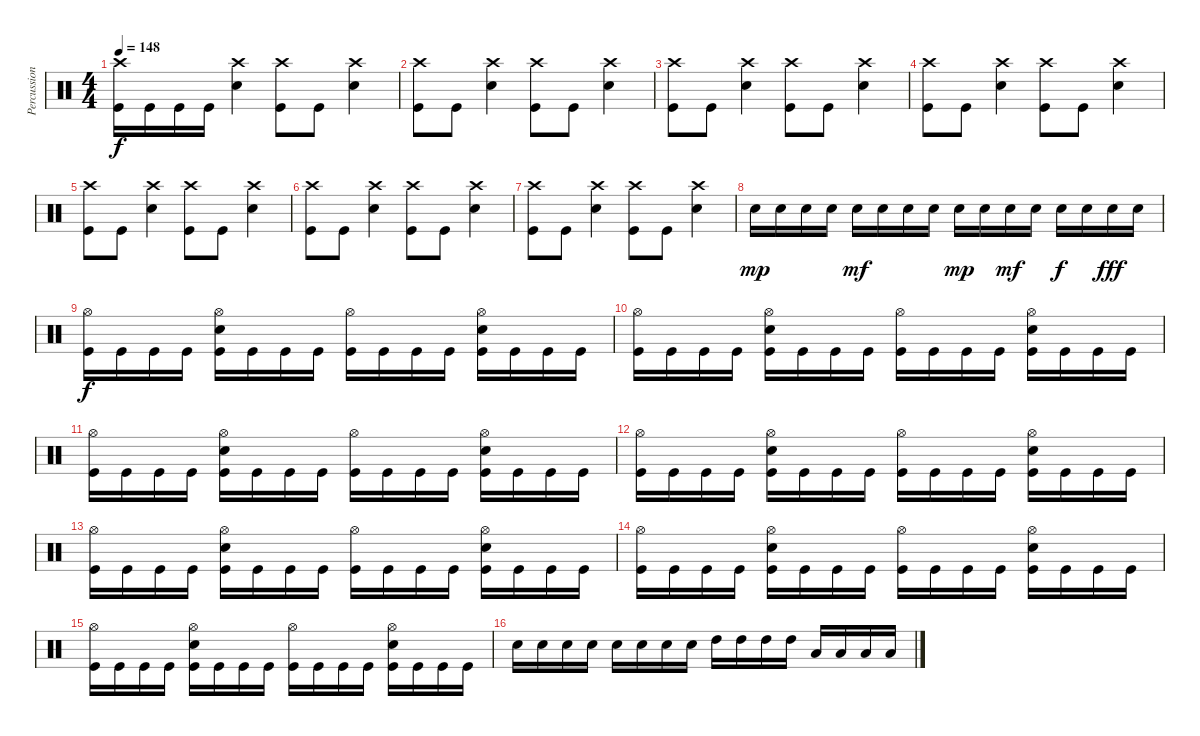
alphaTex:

\track ("Percussion" "Percussion") {instrument percussion}
\staff {score}
\articulation defaults
\ts (4 4)
\tempo 148
\clef neutral
\ks c
("Crash high (hit)" "Kick (hit)").16{dy f} "Kick (hit)".16 "Kick (hit)".16 "Kick (hit)".16 ("Crash high (hit)" "Electric Snare (hit)").4 ("Crash high (hit)" "Kick (hit)").8 "Kick (hit)".8 ("Crash high (hit)" "Electric Snare (hit)").4 |
("Crash high (hit)" "Kick (hit)").8 "Kick (hit)".8 ("Crash high (hit)" "Electric Snare (hit)").4 ("Crash high (hit)" "Kick (hit)").8 "Kick (hit)".8 ("Crash high (hit)" "Electric Snare (hit)").4 |
("Crash high (hit)" "Kick (hit)").8 "Kick (hit)".8 ("Crash high (hit)" "Electric Snare (hit)").4 ("Crash high (hit)" "Kick (hit)").8 "Kick (hit)".8 ("Crash high (hit)" "Electric Snare (hit)").4 |
("Crash high (hit)" "Kick (hit)").8 "Kick (hit)".8 ("Crash high (hit)" "Electric Snare (hit)").4 ("Crash high (hit)" "Kick (hit)").8 "Kick (hit)".8 ("Crash high (hit)" "Electric Snare (hit)").4 |
("Crash high (hit)" "Kick (hit)").8 "Kick (hit)".8 ("Crash high (hit)" "Electric Snare (hit)").4 ("Crash high (hit)" "Kick (hit)").8 "Kick (hit)".8 ("Crash high (hit)" "Electric Snare (hit)").4 |
("Crash high (hit)" "Kick (hit)").8 "Kick (hit)".8 ("Crash high (hit)" "Electric Snare (hit)").4 ("Crash high (hit)" "Kick (hit)").8 "Kick (hit)".8 ("Crash high (hit)" "Electric Snare (hit)").4 |
("Crash high (hit)" "Kick (hit)").8 "Kick (hit)".8 ("Crash high (hit)" "Electric Snare (hit)").4 ("Crash high (hit)" "Kick (hit)").8 "Kick (hit)".8 ("Crash high (hit)" "Electric Snare (hit)").4 |
"Electric Snare (hit)".16{dy mp} "Electric Snare (hit)".16 "Electric Snare (hit)".16 "Electric Snare (hit)".16 "Electric Snare (hit)".16{dy mf} "Electric Snare (hit)".16 "Electric Snare (hit)".16 "Electric Snare (hit)".16 "Electric Snare (hit)".16{dy mp} "Electric Snare (hit)".16 "Electric Snare (hit)".16{dy mf} "Electric Snare (hit)".16 "Electric Snare (hit)".16{dy f} "Electric Snare (hit)".16 "Electric Snare (hit)".16{dy fff} "Electric Snare (hit)".16 |
("Hi-Hat (open)" "Kick (hit)").16{dy f} "Kick (hit)".16 "Kick (hit)".16 "Kick (hit)".16 ("Hi-Hat (open)" "Electric Snare (hit)" "Kick (hit)").16 "Kick (hit)".16 "Kick (hit)".16 "Kick (hit)".16 ("Hi-Hat (open)" "Kick (hit)").16 "Kick (hit)".16 "Kick (hit)".16 "Kick (hit)".16 ("Hi-Hat (open)" "Electric Snare (hit)" "Kick (hit)").16 "Kick (hit)".16 "Kick (hit)".16 "Kick (hit)".16 |
("Hi-Hat (open)" "Kick (hit)").16 "Kick (hit)".16 "Kick (hit)".16 "Kick (hit)".16 ("Hi-Hat (open)" "Electric Snare (hit)" "Kick (hit)").16 "Kick (hit)".16 "Kick (hit)".16 "Kick (hit)".16 ("Hi-Hat (open)" "Kick (hit)").16 "Kick (hit)".16 "Kick (hit)".16 "Kick (hit)".16 ("Hi-Hat (open)" "Electric Snare (hit)" "Kick (hit)").16 "Kick (hit)".16 "Kick (hit)".16 "Kick (hit)".16 |
("Hi-Hat (open)" "Kick (hit)").16 "Kick (hit)".16 "Kick (hit)".16 "Kick (hit)".16 ("Hi-Hat (open)" "Electric Snare (hit)" "Kick (hit)").16 "Kick (hit)".16 "Kick (hit)".16 "Kick (hit)".16 ("Hi-Hat (open)" "Kick (hit)").16 "Kick (hit)".16 "Kick (hit)".16 "Kick (hit)".16 ("Hi-Hat (open)" "Electric Snare (hit)" "Kick (hit)").16 "Kick (hit)".16 "Kick (hit)".16 "Kick (hit)".16 |
("Hi-Hat (open)" "Kick (hit)").16 "Kick (hit)".16 "Kick (hit)".16 "Kick (hit)".16 ("Hi-Hat (open)" "Electric Snare (hit)" "Kick (hit)").16 "Kick (hit)".16 "Kick (hit)".16 "Kick (hit)".16 ("Hi-Hat (open)" "Kick (hit)").16 "Kick (hit)".16 "Kick (hit)".16 "Kick (hit)".16 ("Hi-Hat (open)" "Electric Snare (hit)" "Kick (hit)").16 "Kick (hit)".16 "Kick (hit)".16 "Kick (hit)".16 |
("Hi-Hat (open)" "Kick (hit)").16 "Kick (hit)".16 "Kick (hit)".16 "Kick (hit)".16 ("Hi-Hat (open)" "Electric Snare (hit)" "Kick (hit)").16 "Kick (hit)".16 "Kick (hit)".16 "Kick (hit)".16 ("Hi-Hat (open)" "Kick (hit)").16 "Kick (hit)".16 "Kick (hit)".16 "Kick (hit)".16 ("Hi-Hat (open)" "Electric Snare (hit)" "Kick (hit)").16 "Kick (hit)".16 "Kick (hit)".16 "Kick (hit)".16 |
("Hi-Hat (open)" "Kick (hit)").16 "Kick (hit)".16 "Kick (hit)".16 "Kick (hit)".16 ("Hi-Hat (open)" "Electric Snare (hit)" "Kick (hit)").16 "Kick (hit)".16 "Kick (hit)".16 "Kick (hit)".16 ("Hi-Hat (open)" "Kick (hit)").16 "Kick (hit)".16 "Kick (hit)".16 "Kick (hit)".16 ("Hi-Hat (open)" "Electric Snare (hit)" "Kick (hit)").16 "Kick (hit)".16 "Kick (hit)".16 "Kick (hit)".16 |
("Hi-Hat (open)" "Kick (hit)").16 "Kick (hit)".16 "Kick (hit)".16 "Kick (hit)".16 ("Hi-Hat (open)" "Electric Snare (hit)" "Kick (hit)").16 "Kick (hit)".16 "Kick (hit)".16 "Kick (hit)".16 ("Hi-Hat (open)" "Kick (hit)").16 "Kick (hit)".16 "Kick (hit)".16 "Kick (hit)".16 ("Hi-Hat (open)" "Electric Snare (hit)" "Kick (hit)").16 "Kick (hit)".16 "Kick (hit)".16 "Kick (hit)".16 |
"Electric Snare (hit)".16 "Electric Snare (hit)".16 "Electric Snare (hit)".16 "Electric Snare (hit)".16 "Electric Snare (hit)".16 "Electric Snare (hit)".16 "Electric Snare (hit)".16 "Electric Snare (hit)".16 "High Tom (hit)".16 "High Tom (hit)".16 "High Tom (hit)".16 "High Tom (hit)".16 "Low Floor Tom (hit)".16 "Low Floor Tom (hit)".16 "Low Floor Tom (hit)".16 "Low Floor Tom (hit)".16
